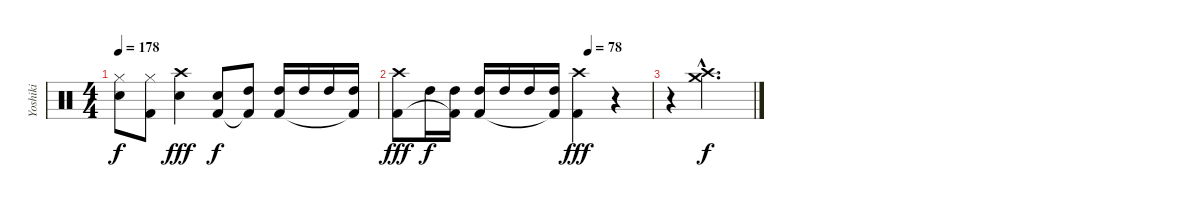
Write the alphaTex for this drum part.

\track ("Yoshiki" "Yoshiki") {instrument percussion}
\staff {score}
\articulation defaults
\ts (4 4)
\tempo 178
\clef neutral
\ks c
("Hi-Hat (closed)" "Snare (hit) 2").8{dy f} ("Hi-Hat (closed)" "Kick (hit) 2").8 ("Crash high (hit)" "Snare (hit) 2").4{dy fff} ("Snare (hit) 2" "Kick (hit) 2").8{dy f} ("High Tom (hit)" "Kick (hit) 2"{t}).8 ("High Tom (hit)" "Kick (hit) 2").16 "High Tom (hit)".16 "High Tom (hit)".16 ("High Tom (hit)" "Kick (hit) 2"{t}).16 |
\tempo (78 0.75)
("Crash high (hit)" "Kick (hit) 2").8{dy fff} "High Tom (hit)".16{dy f} ("High Tom (hit)" "Kick (hit) 2"{t}).16 ("High Tom (hit)" "Kick (hit) 2").16 "High Tom (hit)".16 "High Tom (hit)".16 ("High Tom (hit)" "Kick (hit) 2"{t}).16 ("Crash high (hit)" "Kick (hit) 2").4{dy fff} r.4 |
r.4 ("Crash high (hit)"{hac} "Crash medium (hit)"{hac}).2{d dy f}
